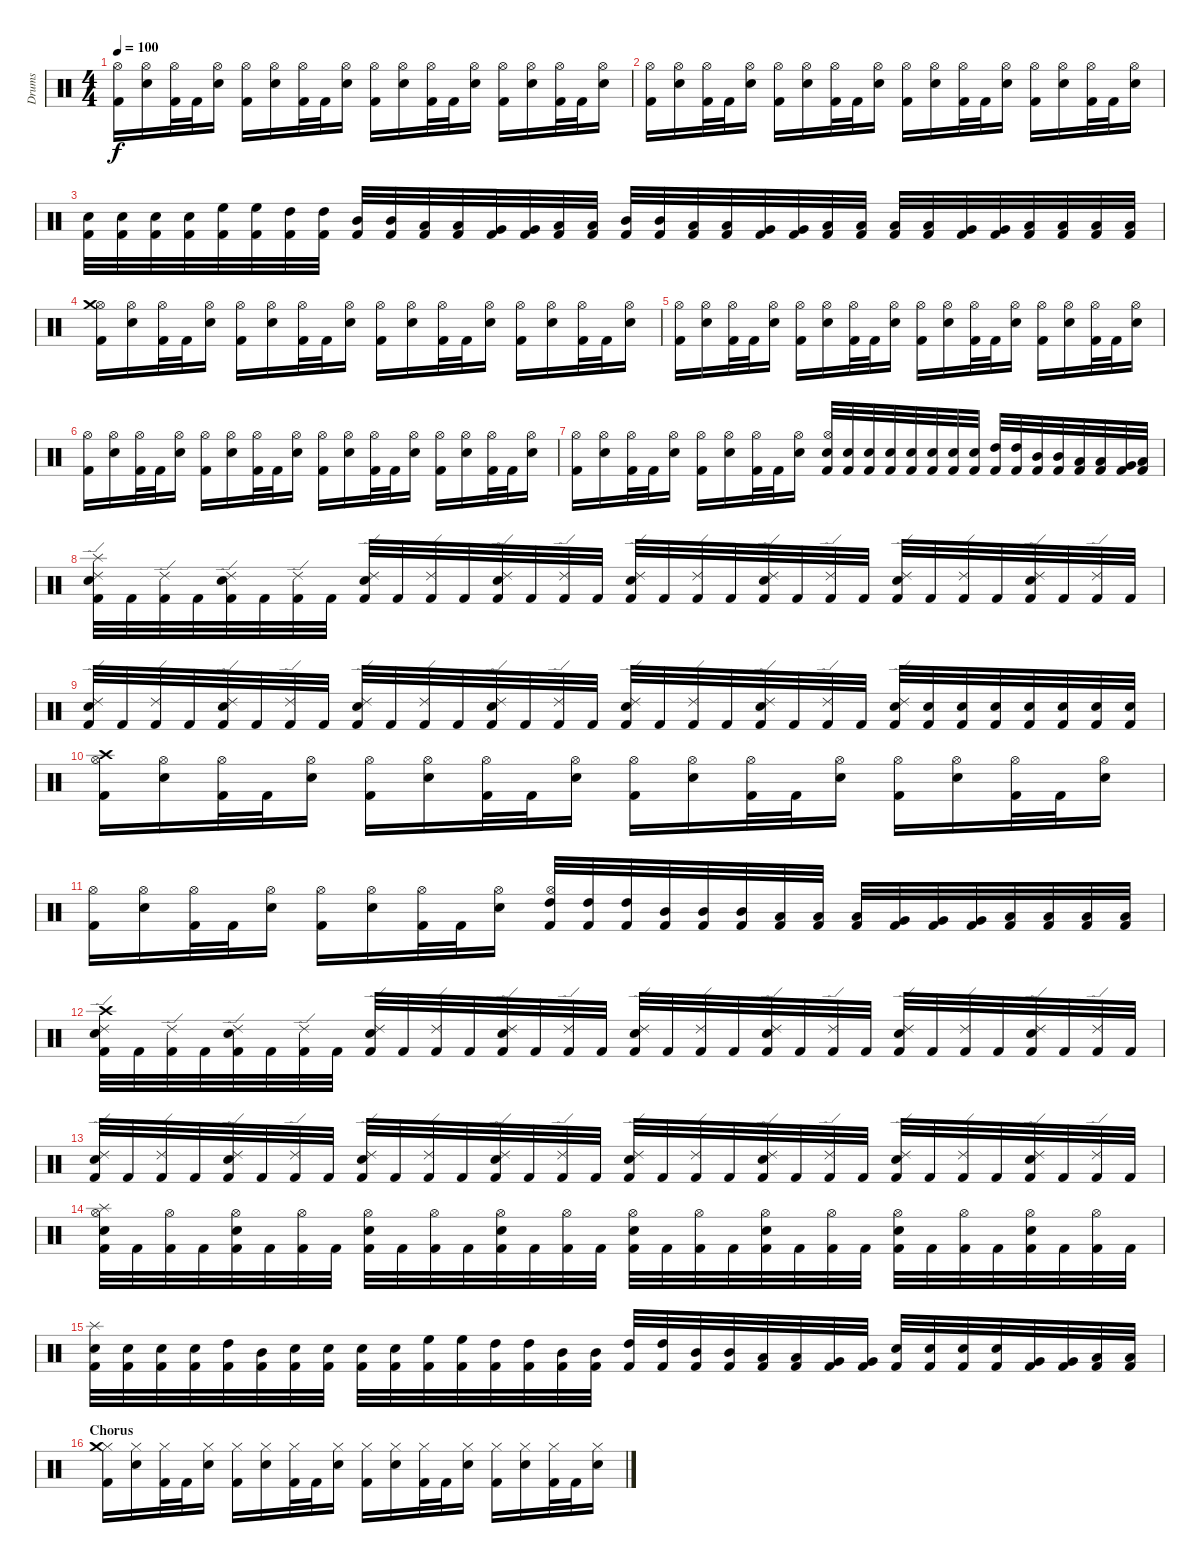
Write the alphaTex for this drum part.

\track ("Drums" "Drums") {instrument percussion}
\staff {score}
\articulation defaults
\ts (4 4)
\tempo 100
\clef neutral
\ks c
("Kick (hit) 2" "Hi-Hat (open)").16{dy f} ("Snare (hit) 2" "Hi-Hat (open)").16 ("Kick (hit) 2" "Hi-Hat (open)").32 "Kick (hit) 2".32 ("Snare (hit) 2" "Hi-Hat (open)").16 ("Kick (hit) 2" "Hi-Hat (open)").16 ("Snare (hit) 2" "Hi-Hat (open)").16 ("Kick (hit) 2" "Hi-Hat (open)").32 "Kick (hit) 2".32 ("Snare (hit) 2" "Hi-Hat (open)").16 ("Kick (hit) 2" "Hi-Hat (open)").16 ("Snare (hit) 2" "Hi-Hat (open)").16 ("Kick (hit) 2" "Hi-Hat (open)").32 "Kick (hit) 2".32 ("Snare (hit) 2" "Hi-Hat (open)").16 ("Kick (hit) 2" "Hi-Hat (open)").16 ("Snare (hit) 2" "Hi-Hat (open)").16 ("Kick (hit) 2" "Hi-Hat (open)").32 "Kick (hit) 2".32 ("Snare (hit) 2" "Hi-Hat (open)").16 |
("Kick (hit) 2" "Hi-Hat (open)").16 ("Snare (hit) 2" "Hi-Hat (open)").16 ("Kick (hit) 2" "Hi-Hat (open)").32 "Kick (hit) 2".32 ("Snare (hit) 2" "Hi-Hat (open)").16 ("Kick (hit) 2" "Hi-Hat (open)").16 ("Snare (hit) 2" "Hi-Hat (open)").16 ("Kick (hit) 2" "Hi-Hat (open)").32 "Kick (hit) 2".32 ("Snare (hit) 2" "Hi-Hat (open)").16 ("Kick (hit) 2" "Hi-Hat (open)").16 ("Snare (hit) 2" "Hi-Hat (open)").16 ("Kick (hit) 2" "Hi-Hat (open)").32 "Kick (hit) 2".32 ("Snare (hit) 2" "Hi-Hat (open)").16 ("Kick (hit) 2" "Hi-Hat (open)").16 ("Snare (hit) 2" "Hi-Hat (open)").16 ("Kick (hit) 2" "Hi-Hat (open)").32 "Kick (hit) 2".32 ("Snare (hit) 2" "Hi-Hat (open)").16 |
("Kick (hit) 2" "Snare (hit) 2").32 ("Kick (hit) 2" "Snare (hit) 2").32 ("Kick (hit) 2" "Snare (hit) 2").32 ("Kick (hit) 2" "Snare (hit) 2").32 ("Kick (hit) 2" "High Floor Tom (hit)").32 ("Kick (hit) 2" "High Floor Tom (hit)").32 ("Kick (hit) 2" "High Tom (hit)").32 ("Kick (hit) 2" "High Tom (hit)").32 ("Kick (hit) 2" "Mid Tom (hit)").32 ("Kick (hit) 2" "Mid Tom (hit)").32 ("Kick (hit) 2" "Low Tom (hit)").32 ("Kick (hit) 2" "Low Tom (hit)").32 ("Kick (hit) 2" "Very Low Tom (hit)").32 ("Kick (hit) 2" "Very Low Tom (hit)").32 ("Kick (hit) 2" "Low Floor Tom (hit)").32 ("Kick (hit) 2" "Low Floor Tom (hit)").32 ("Kick (hit) 2" "Mid Tom (hit)").32 ("Kick (hit) 2" "Mid Tom (hit)").32 ("Kick (hit) 2" "Low Tom (hit)").32 ("Kick (hit) 2" "Low Tom (hit)").32 ("Kick (hit) 2" "Very Low Tom (hit)").32 ("Kick (hit) 2" "Very Low Tom (hit)").32 ("Kick (hit) 2" "Low Floor Tom (hit)").32 ("Kick (hit) 2" "Low Floor Tom (hit)").32 ("Kick (hit) 2" "Low Tom (hit)").32 ("Kick (hit) 2" "Low Tom (hit)").32 ("Kick (hit) 2" "Very Low Tom (hit)").32 ("Kick (hit) 2" "Very Low Tom (hit)").32 ("Kick (hit) 2" "Low Floor Tom (hit)").32 ("Kick (hit) 2" "Low Floor Tom (hit)").32 ("Kick (hit) 2" "Low Floor Tom (hit)").32 ("Kick (hit) 2" "Low Floor Tom (hit)").32 |
\section ("" "")
("Kick (hit) 2" "Hi-Hat (open)" "Crash medium (hit)").16 ("Snare (hit) 2" "Hi-Hat (open)").16 ("Kick (hit) 2" "Hi-Hat (open)").32 "Kick (hit) 2".32 ("Snare (hit) 2" "Hi-Hat (open)").16 ("Kick (hit) 2" "Hi-Hat (open)").16 ("Snare (hit) 2" "Hi-Hat (open)").16 ("Kick (hit) 2" "Hi-Hat (open)").32 "Kick (hit) 2".32 ("Snare (hit) 2" "Hi-Hat (open)").16 ("Kick (hit) 2" "Hi-Hat (open)").16 ("Snare (hit) 2" "Hi-Hat (open)").16 ("Kick (hit) 2" "Hi-Hat (open)").32 "Kick (hit) 2".32 ("Snare (hit) 2" "Hi-Hat (open)").16 ("Kick (hit) 2" "Hi-Hat (open)").16 ("Snare (hit) 2" "Hi-Hat (open)").16 ("Kick (hit) 2" "Hi-Hat (open)").32 "Kick (hit) 2".32 ("Snare (hit) 2" "Hi-Hat (open)").16 |
("Kick (hit) 2" "Hi-Hat (open)").16 ("Snare (hit) 2" "Hi-Hat (open)").16 ("Kick (hit) 2" "Hi-Hat (open)").32 "Kick (hit) 2".32 ("Snare (hit) 2" "Hi-Hat (open)").16 ("Kick (hit) 2" "Hi-Hat (open)").16 ("Snare (hit) 2" "Hi-Hat (open)").16 ("Kick (hit) 2" "Hi-Hat (open)").32 "Kick (hit) 2".32 ("Snare (hit) 2" "Hi-Hat (open)").16 ("Kick (hit) 2" "Hi-Hat (open)").16 ("Snare (hit) 2" "Hi-Hat (open)").16 ("Kick (hit) 2" "Hi-Hat (open)").32 "Kick (hit) 2".32 ("Snare (hit) 2" "Hi-Hat (open)").16 ("Kick (hit) 2" "Hi-Hat (open)").16 ("Snare (hit) 2" "Hi-Hat (open)").16 ("Kick (hit) 2" "Hi-Hat (open)").32 "Kick (hit) 2".32 ("Snare (hit) 2" "Hi-Hat (open)").16 |
("Kick (hit) 2" "Hi-Hat (open)").16 ("Snare (hit) 2" "Hi-Hat (open)").16 ("Kick (hit) 2" "Hi-Hat (open)").32 "Kick (hit) 2".32 ("Snare (hit) 2" "Hi-Hat (open)").16 ("Kick (hit) 2" "Hi-Hat (open)").16 ("Snare (hit) 2" "Hi-Hat (open)").16 ("Kick (hit) 2" "Hi-Hat (open)").32 "Kick (hit) 2".32 ("Snare (hit) 2" "Hi-Hat (open)").16 ("Kick (hit) 2" "Hi-Hat (open)").16 ("Snare (hit) 2" "Hi-Hat (open)").16 ("Kick (hit) 2" "Hi-Hat (open)").32 "Kick (hit) 2".32 ("Snare (hit) 2" "Hi-Hat (open)").16 ("Kick (hit) 2" "Hi-Hat (open)").16 ("Snare (hit) 2" "Hi-Hat (open)").16 ("Kick (hit) 2" "Hi-Hat (open)").32 "Kick (hit) 2".32 ("Snare (hit) 2" "Hi-Hat (open)").16 |
("Kick (hit) 2" "Hi-Hat (open)").16 ("Snare (hit) 2" "Hi-Hat (open)").16 ("Kick (hit) 2" "Hi-Hat (open)").32 "Kick (hit) 2".32 ("Snare (hit) 2" "Hi-Hat (open)").16 ("Kick (hit) 2" "Hi-Hat (open)").16 ("Snare (hit) 2" "Hi-Hat (open)").16 ("Kick (hit) 2" "Hi-Hat (open)").32 "Kick (hit) 2".32 ("Snare (hit) 2" "Hi-Hat (open)").16 ("Kick (hit) 2" "Snare (hit) 2" "Hi-Hat (open)").32 ("Kick (hit) 2" "Snare (hit) 2").32 ("Kick (hit) 2" "Snare (hit) 2").32 ("Kick (hit) 2" "Snare (hit) 2").32 ("Kick (hit) 2" "Snare (hit) 2").32 ("Kick (hit) 2" "Snare (hit) 2").32 ("Kick (hit) 2" "Snare (hit) 2").32 ("Kick (hit) 2" "Snare (hit) 2").32 ("Kick (hit) 2" "High Tom (hit)").32 ("Kick (hit) 2" "High Tom (hit)").32 ("Kick (hit) 2" "Mid Tom (hit)").32 ("Kick (hit) 2" "Mid Tom (hit)").32 ("Kick (hit) 2" "Low Tom (hit)").32 ("Kick (hit) 2" "Low Tom (hit)").32 ("Kick (hit) 2" "Very Low Tom (hit)").32 ("Kick (hit) 2" "Low Floor Tom (hit)").32 |
\section ("" "")
("Kick (hit) 2" "Snare (hit) 2" "Ride (edge) 2" "Splash (hit)").32 "Kick (hit) 2".32 ("Kick (hit) 2" "Ride (edge) 2").32 "Kick (hit) 2".32 ("Kick (hit) 2" "Snare (hit) 2" "Ride (edge) 2").32 "Kick (hit) 2".32 ("Kick (hit) 2" "Ride (edge) 2").32 "Kick (hit) 2".32 ("Kick (hit) 2" "Snare (hit) 2" "Ride (edge) 2").32 "Kick (hit) 2".32 ("Kick (hit) 2" "Ride (edge) 2").32 "Kick (hit) 2".32 ("Kick (hit) 2" "Snare (hit) 2" "Ride (edge) 2").32 "Kick (hit) 2".32 ("Kick (hit) 2" "Ride (edge) 2").32 "Kick (hit) 2".32 ("Kick (hit) 2" "Snare (hit) 2" "Ride (edge) 2").32 "Kick (hit) 2".32 ("Kick (hit) 2" "Ride (edge) 2").32 "Kick (hit) 2".32 ("Kick (hit) 2" "Snare (hit) 2" "Ride (edge) 2").32 "Kick (hit) 2".32 ("Kick (hit) 2" "Ride (edge) 2").32 "Kick (hit) 2".32 ("Kick (hit) 2" "Snare (hit) 2" "Ride (edge) 2").32 "Kick (hit) 2".32 ("Kick (hit) 2" "Ride (edge) 2").32 "Kick (hit) 2".32 ("Kick (hit) 2" "Snare (hit) 2" "Ride (edge) 2").32 "Kick (hit) 2".32 ("Kick (hit) 2" "Ride (edge) 2").32 "Kick (hit) 2".32 |
("Kick (hit) 2" "Snare (hit) 2" "Ride (edge) 2").32 "Kick (hit) 2".32 ("Kick (hit) 2" "Ride (edge) 2").32 "Kick (hit) 2".32 ("Kick (hit) 2" "Snare (hit) 2" "Ride (edge) 2").32 "Kick (hit) 2".32 ("Kick (hit) 2" "Ride (edge) 2").32 "Kick (hit) 2".32 ("Kick (hit) 2" "Snare (hit) 2" "Ride (edge) 2").32 "Kick (hit) 2".32 ("Kick (hit) 2" "Ride (edge) 2").32 "Kick (hit) 2".32 ("Kick (hit) 2" "Snare (hit) 2" "Ride (edge) 2").32 "Kick (hit) 2".32 ("Kick (hit) 2" "Ride (edge) 2").32 "Kick (hit) 2".32 ("Kick (hit) 2" "Snare (hit) 2" "Ride (edge) 2").32 "Kick (hit) 2".32 ("Kick (hit) 2" "Ride (edge) 2").32 "Kick (hit) 2".32 ("Kick (hit) 2" "Snare (hit) 2" "Ride (edge) 2").32 "Kick (hit) 2".32 ("Kick (hit) 2" "Ride (edge) 2").32 "Kick (hit) 2".32 ("Kick (hit) 2" "Snare (hit) 2" "Ride (edge) 2").32 ("Kick (hit) 2" "Snare (hit) 2").32 ("Kick (hit) 2" "Snare (hit) 2").32 ("Kick (hit) 2" "Snare (hit) 2").32 ("Kick (hit) 2" "Snare (hit) 2").32 ("Kick (hit) 2" "Snare (hit) 2").32 ("Kick (hit) 2" "Snare (hit) 2").32 ("Kick (hit) 2" "Snare (hit) 2").32 |
("Kick (hit) 2" "Hi-Hat (open)" "Crash high (hit)").16 ("Snare (hit) 2" "Hi-Hat (open)").16 ("Kick (hit) 2" "Hi-Hat (open)").32 "Kick (hit) 2".32 ("Snare (hit) 2" "Hi-Hat (open)").16 ("Kick (hit) 2" "Hi-Hat (open)").16 ("Snare (hit) 2" "Hi-Hat (open)").16 ("Kick (hit) 2" "Hi-Hat (open)").32 "Kick (hit) 2".32 ("Snare (hit) 2" "Hi-Hat (open)").16 ("Kick (hit) 2" "Hi-Hat (open)").16 ("Snare (hit) 2" "Hi-Hat (open)").16 ("Kick (hit) 2" "Hi-Hat (open)").32 "Kick (hit) 2".32 ("Snare (hit) 2" "Hi-Hat (open)").16 ("Kick (hit) 2" "Hi-Hat (open)").16 ("Snare (hit) 2" "Hi-Hat (open)").16 ("Kick (hit) 2" "Hi-Hat (open)").32 "Kick (hit) 2".32 ("Snare (hit) 2" "Hi-Hat (open)").16 |
("Kick (hit) 2" "Hi-Hat (open)").16 ("Snare (hit) 2" "Hi-Hat (open)").16 ("Kick (hit) 2" "Hi-Hat (open)").32 "Kick (hit) 2".32 ("Snare (hit) 2" "Hi-Hat (open)").16 ("Kick (hit) 2" "Hi-Hat (open)").16 ("Snare (hit) 2" "Hi-Hat (open)").16 ("Kick (hit) 2" "Hi-Hat (open)").32 "Kick (hit) 2".32 ("Snare (hit) 2" "Hi-Hat (open)").16 ("Kick (hit) 2" "High Tom (hit)" "Hi-Hat (open)").32 ("Kick (hit) 2" "High Tom (hit)").32 ("Kick (hit) 2" "High Tom (hit)").32 ("Kick (hit) 2" "Mid Tom (hit)").32 ("Kick (hit) 2" "Mid Tom (hit)").32 ("Kick (hit) 2" "Mid Tom (hit)").32 ("Kick (hit) 2" "Low Tom (hit)").32 ("Kick (hit) 2" "Low Tom (hit)").32 ("Kick (hit) 2" "Low Tom (hit)").32 ("Kick (hit) 2" "Very Low Tom (hit)").32 ("Kick (hit) 2" "Very Low Tom (hit)").32 ("Kick (hit) 2" "Very Low Tom (hit)").32 ("Kick (hit) 2" "Low Floor Tom (hit)").32 ("Kick (hit) 2" "Low Floor Tom (hit)").32 ("Kick (hit) 2" "Low Floor Tom (hit)").32 ("Kick (hit) 2" "Low Floor Tom (hit)").32 |
("Kick (hit) 2" "Snare (hit) 2" "Ride (edge) 2" "Crash high (hit)").32 "Kick (hit) 2".32 ("Kick (hit) 2" "Ride (edge) 2").32 "Kick (hit) 2".32 ("Kick (hit) 2" "Snare (hit) 2" "Ride (edge) 2").32 "Kick (hit) 2".32 ("Kick (hit) 2" "Ride (edge) 2").32 "Kick (hit) 2".32 ("Kick (hit) 2" "Snare (hit) 2" "Ride (edge) 2").32 "Kick (hit) 2".32 ("Kick (hit) 2" "Ride (edge) 2").32 "Kick (hit) 2".32 ("Kick (hit) 2" "Snare (hit) 2" "Ride (edge) 2").32 "Kick (hit) 2".32 ("Kick (hit) 2" "Ride (edge) 2").32 "Kick (hit) 2".32 ("Kick (hit) 2" "Snare (hit) 2" "Ride (edge) 2").32 "Kick (hit) 2".32 ("Kick (hit) 2" "Ride (edge) 2").32 "Kick (hit) 2".32 ("Kick (hit) 2" "Snare (hit) 2" "Ride (edge) 2").32 "Kick (hit) 2".32 ("Kick (hit) 2" "Ride (edge) 2").32 "Kick (hit) 2".32 ("Kick (hit) 2" "Snare (hit) 2" "Ride (edge) 2").32 "Kick (hit) 2".32 ("Kick (hit) 2" "Ride (edge) 2").32 "Kick (hit) 2".32 ("Kick (hit) 2" "Snare (hit) 2" "Ride (edge) 2").32 "Kick (hit) 2".32 ("Kick (hit) 2" "Ride (edge) 2").32 "Kick (hit) 2".32 |
("Kick (hit) 2" "Snare (hit) 2" "Ride (edge) 2").32 "Kick (hit) 2".32 ("Kick (hit) 2" "Ride (edge) 2").32 "Kick (hit) 2".32 ("Kick (hit) 2" "Snare (hit) 2" "Ride (edge) 2").32 "Kick (hit) 2".32 ("Kick (hit) 2" "Ride (edge) 2").32 "Kick (hit) 2".32 ("Kick (hit) 2" "Snare (hit) 2" "Ride (edge) 2").32 "Kick (hit) 2".32 ("Kick (hit) 2" "Ride (edge) 2").32 "Kick (hit) 2".32 ("Kick (hit) 2" "Snare (hit) 2" "Ride (edge) 2").32 "Kick (hit) 2".32 ("Kick (hit) 2" "Ride (edge) 2").32 "Kick (hit) 2".32 ("Kick (hit) 2" "Snare (hit) 2" "Ride (edge) 2").32 "Kick (hit) 2".32 ("Kick (hit) 2" "Ride (edge) 2").32 "Kick (hit) 2".32 ("Kick (hit) 2" "Snare (hit) 2" "Ride (edge) 2").32 "Kick (hit) 2".32 ("Kick (hit) 2" "Ride (edge) 2").32 "Kick (hit) 2".32 ("Kick (hit) 2" "Snare (hit) 2" "Ride (edge) 2").32 "Kick (hit) 2".32 ("Kick (hit) 2" "Ride (edge) 2").32 "Kick (hit) 2".32 ("Kick (hit) 2" "Snare (hit) 2" "Ride (edge) 2").32 "Kick (hit) 2".32 ("Kick (hit) 2" "Ride (edge) 2").32 "Kick (hit) 2".32 |
("Kick (hit) 2" "Snare (hit) 2" "Hi-Hat (open)" "Splash (hit)").32 "Kick (hit) 2".32 ("Kick (hit) 2" "Hi-Hat (open)").32 "Kick (hit) 2".32 ("Kick (hit) 2" "Snare (hit) 2" "Hi-Hat (open)").32 "Kick (hit) 2".32 ("Kick (hit) 2" "Hi-Hat (open)").32 "Kick (hit) 2".32 ("Kick (hit) 2" "Snare (hit) 2" "Hi-Hat (open)").32 "Kick (hit) 2".32 ("Kick (hit) 2" "Hi-Hat (open)").32 "Kick (hit) 2".32 ("Kick (hit) 2" "Snare (hit) 2" "Hi-Hat (open)").32 "Kick (hit) 2".32 ("Kick (hit) 2" "Hi-Hat (open)").32 "Kick (hit) 2".32 ("Kick (hit) 2" "Snare (hit) 2" "Hi-Hat (open)").32 "Kick (hit) 2".32 ("Kick (hit) 2" "Hi-Hat (open)").32 "Kick (hit) 2".32 ("Kick (hit) 2" "Snare (hit) 2" "Hi-Hat (open)").32 "Kick (hit) 2".32 ("Kick (hit) 2" "Hi-Hat (open)").32 "Kick (hit) 2".32 ("Kick (hit) 2" "Snare (hit) 2" "Hi-Hat (open)").32 "Kick (hit) 2".32 ("Kick (hit) 2" "Hi-Hat (open)").32 "Kick (hit) 2".32 ("Kick (hit) 2" "Snare (hit) 2" "Hi-Hat (open)").32 "Kick (hit) 2".32 ("Kick (hit) 2" "Hi-Hat (open)").32 "Kick (hit) 2".32 |
("Kick (hit) 2" "Snare (hit) 2" "Splash (hit)").32 ("Kick (hit) 2" "Snare (hit) 2").32 ("Kick (hit) 2" "Snare (hit) 2").32 ("Kick (hit) 2" "Snare (hit) 2").32 ("Kick (hit) 2" "High Tom (hit)").32 ("Kick (hit) 2" "Mid Tom (hit)").32 ("Kick (hit) 2" "Snare (hit) 2").32 ("Kick (hit) 2" "Snare (hit) 2").32 ("Kick (hit) 2" "Snare (hit) 2").32 ("Kick (hit) 2" "Snare (hit) 2").32 ("Kick (hit) 2" "High Floor Tom (hit)").32 ("Kick (hit) 2" "High Floor Tom (hit)").32 ("Kick (hit) 2" "High Tom (hit)").32 ("Kick (hit) 2" "High Tom (hit)").32 ("Kick (hit) 2" "Mid Tom (hit)").32 ("Kick (hit) 2" "Mid Tom (hit)").32 ("Kick (hit) 2" "High Tom (hit)").32 ("Kick (hit) 2" "High Tom (hit)").32 ("Kick (hit) 2" "Mid Tom (hit)").32 ("Kick (hit) 2" "Mid Tom (hit)").32 ("Kick (hit) 2" "Low Tom (hit)").32 ("Kick (hit) 2" "Low Tom (hit)").32 ("Kick (hit) 2" "Very Low Tom (hit)").32 ("Kick (hit) 2" "Very Low Tom (hit)").32 ("Kick (hit) 2" "Snare (hit) 2").32 ("Kick (hit) 2" "Snare (hit) 2").32 ("Kick (hit) 2" "Snare (hit) 2").32 ("Kick (hit) 2" "Snare (hit) 2").32 ("Kick (hit) 2" "Very Low Tom (hit)").32 ("Kick (hit) 2" "Very Low Tom (hit)").32 ("Kick (hit) 2" "Low Floor Tom (hit)").32 ("Kick (hit) 2" "Low Floor Tom (hit)").32 |
\section ("" "Chorus")
("Kick (hit) 2" "Hi-Hat (closed)" "Crash medium (hit)").16 ("Snare (hit) 2" "Hi-Hat (closed)").16 ("Kick (hit) 2" "Hi-Hat (closed)").32 "Kick (hit) 2".32 ("Snare (hit) 2" "Hi-Hat (closed)").16 ("Kick (hit) 2" "Hi-Hat (closed)").16 ("Snare (hit) 2" "Hi-Hat (closed)").16 ("Kick (hit) 2" "Hi-Hat (closed)").32 "Kick (hit) 2".32 ("Snare (hit) 2" "Hi-Hat (closed)").16 ("Kick (hit) 2" "Hi-Hat (closed)").16 ("Snare (hit) 2" "Hi-Hat (closed)").16 ("Kick (hit) 2" "Hi-Hat (closed)").32 "Kick (hit) 2".32 ("Snare (hit) 2" "Hi-Hat (closed)").16 ("Kick (hit) 2" "Hi-Hat (closed)").16 ("Snare (hit) 2" "Hi-Hat (closed)").16 ("Kick (hit) 2" "Hi-Hat (closed)").32 "Kick (hit) 2".32 ("Snare (hit) 2" "Hi-Hat (closed)").16
